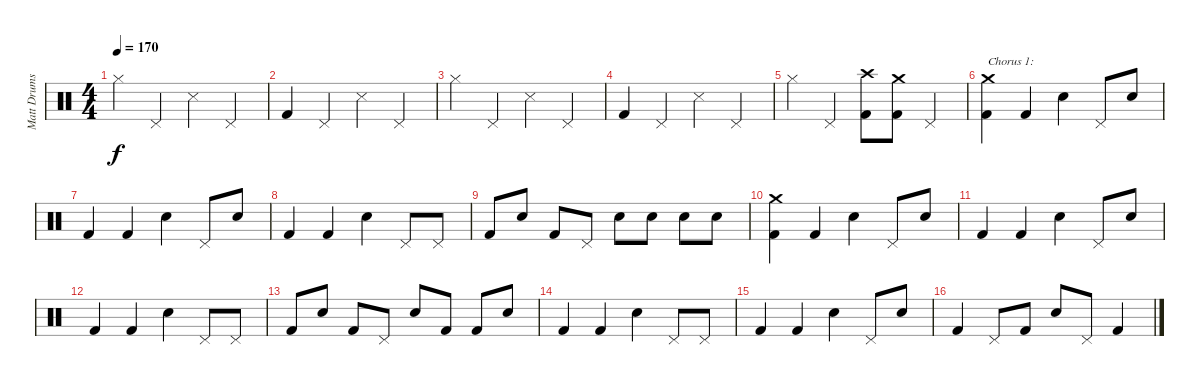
\track ("Matt Drums" "Matt Drums") {instrument percussion}
\staff {score}
\articulation defaults
\ts (4 4)
\tempo 170
\clef neutral
\ks c "Hi-Hat (closed)".4{dy f} "Pedal Hi-Hat (hit)".4 "Snare (side stick) 3".4 "Pedal Hi-Hat (hit)".4
|
"Kick (hit) 2".4 "Pedal Hi-Hat (hit)".4 "Snare (side stick) 3".4 "Pedal Hi-Hat (hit)".4 |
"Hi-Hat (closed)".4 "Pedal Hi-Hat (hit)".4 "Snare (side stick) 3".4 "Pedal Hi-Hat (hit)".4 |
"Kick (hit) 2".4 "Pedal Hi-Hat (hit)".4 "Snare (side stick) 3".4 "Pedal Hi-Hat (hit)".4 |
"Hi-Hat (closed)".4 "Pedal Hi-Hat (hit)".4 ("Crash high (hit)" "Kick (hit) 2").8 ("Crash medium (hit)" "Kick (hit) 2").8 "Pedal Hi-Hat (hit)".4 |
("Crash medium (hit)" "Kick (hit) 2").4{txt "Chorus 1:"} "Kick (hit) 2".4 "Electric Snare (hit)".4 "Pedal Hi-Hat (hit)".8 "Electric Snare (hit)".8 |
"Kick (hit) 2".4 "Kick (hit) 2".4 "Electric Snare (hit)".4 "Pedal Hi-Hat (hit)".8 "Electric Snare (hit)".8 |
"Kick (hit) 2".4 "Kick (hit) 2".4 "Electric Snare (hit)".4 "Pedal Hi-Hat (hit)".8 "Pedal Hi-Hat (hit)".8 |
"Kick (hit) 2".8 "Electric Snare (hit)".8 "Kick (hit) 2".8 "Pedal Hi-Hat (hit)".8 "Electric Snare (hit)".8 "Electric Snare (hit)".8 "Electric Snare (hit)".8 "Electric Snare (hit)".8 |
("Crash medium (hit)" "Kick (hit) 2").4 "Kick (hit) 2".4 "Electric Snare (hit)".4 "Pedal Hi-Hat (hit)".8 "Electric Snare (hit)".8 |
"Kick (hit) 2".4 "Kick (hit) 2".4 "Electric Snare (hit)".4 "Pedal Hi-Hat (hit)".8 "Electric Snare (hit)".8 |
"Kick (hit) 2".4 "Kick (hit) 2".4 "Electric Snare (hit)".4 "Pedal Hi-Hat (hit)".8 "Pedal Hi-Hat (hit)".8 |
"Kick (hit) 2".8 "Electric Snare (hit)".8 "Kick (hit) 2".8 "Pedal Hi-Hat (hit)".8 "Electric Snare (hit)".8 "Kick (hit) 2".8 "Kick (hit) 2".8 "Electric Snare (hit)".8 |
"Kick (hit) 2".4 "Kick (hit) 2".4 "Electric Snare (hit)".4 "Pedal Hi-Hat (hit)".8 "Pedal Hi-Hat (hit)".8 |
"Kick (hit) 2".4 "Kick (hit) 2".4 "Electric Snare (hit)".4 "Pedal Hi-Hat (hit)".8 "Electric Snare (hit)".8 |
"Kick (hit) 2".4 "Pedal Hi-Hat (hit)".8 "Kick (hit) 2".8 "Electric Snare (hit)".8 "Pedal Hi-Hat (hit)".8 "Kick (hit) 2".4
